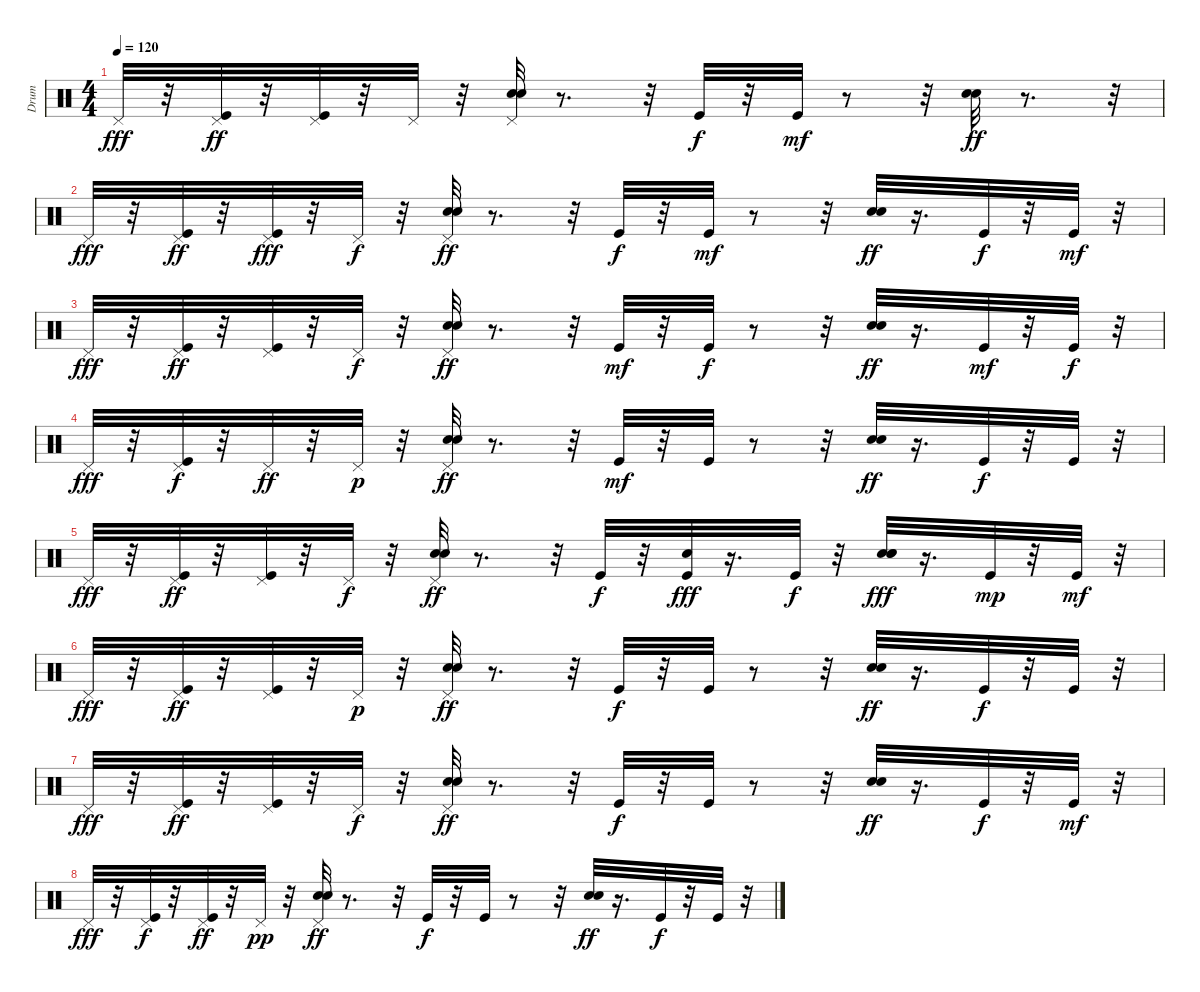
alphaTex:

\track ("Drum" "Drum") {instrument percussion}
\staff {score}
\articulation defaults
\ts (4 4)
\tempo 120
\clef neutral
\ks c "Pedal Hi-Hat (hit)".32{dy fff}
r.32 ("Kick (hit)" "Pedal Hi-Hat (hit)").32{dy ff} r.32 ("Kick (hit)" "Pedal Hi-Hat (hit)").32 r.32 "Pedal Hi-Hat (hit)".32 r.32 ("Electric Snare (hit)" "Snare (hit) 2" "Pedal Hi-Hat (hit)").32 r.8{d} r.32 "Kick (hit)".32{dy f} r.32 "Kick (hit)".32{dy mf} r.8 r.32 ("Electric Snare (hit)" "Snare (hit) 2").32{dy ff} r.8{d} r.32 |
"Pedal Hi-Hat (hit)".32{dy fff} r.32 ("Kick (hit)" "Pedal Hi-Hat (hit)").32{dy ff} r.32 ("Kick (hit)" "Pedal Hi-Hat (hit)").32{dy fff} r.32 "Pedal Hi-Hat (hit)".32{dy f} r.32 ("Electric Snare (hit)" "Snare (hit) 2" "Pedal Hi-Hat (hit)").32{dy ff} r.8{d} r.32 "Kick (hit)".32{dy f} r.32 "Kick (hit)".32{dy mf} r.8 r.32 ("Snare (hit) 2" "Electric Snare (hit)").32{dy ff} r.16{d} "Kick (hit)".32{dy f} r.32 "Kick (hit)".32{dy mf} r.32 |
"Pedal Hi-Hat (hit)".32{dy fff} r.32 ("Kick (hit)" "Pedal Hi-Hat (hit)").32{dy ff} r.32 ("Kick (hit)" "Pedal Hi-Hat (hit)").32 r.32 "Pedal Hi-Hat (hit)".32{dy f} r.32 ("Snare (hit) 2" "Electric Snare (hit)" "Pedal Hi-Hat (hit)").32{dy ff} r.8{d} r.32 "Kick (hit)".32{dy mf} r.32 "Kick (hit)".32{dy f} r.8 r.32 ("Snare (hit) 2" "Electric Snare (hit)").32{dy ff} r.16{d} "Kick (hit)".32{dy mf} r.32 "Kick (hit)".32{dy f} r.32 |
"Pedal Hi-Hat (hit)".32{dy fff} r.32 ("Pedal Hi-Hat (hit)" "Kick (hit)").32{dy f} r.32 "Pedal Hi-Hat (hit)".32{dy ff} r.32 "Pedal Hi-Hat (hit)".32{dy p} r.32 ("Pedal Hi-Hat (hit)" "Snare (hit) 2" "Electric Snare (hit)").32{dy ff} r.8{d} r.32 "Kick (hit)".32{dy mf} r.32 "Kick (hit)".32 r.8 r.32 ("Snare (hit) 2" "Electric Snare (hit)").32{dy ff} r.16{d} "Kick (hit)".32{dy f} r.32 "Kick (hit)".32 r.32 |
"Pedal Hi-Hat (hit)".32{dy fff} r.32 ("Pedal Hi-Hat (hit)" "Kick (hit)").32{dy ff} r.32 ("Kick (hit)" "Pedal Hi-Hat (hit)").32 r.32 "Pedal Hi-Hat (hit)".32{dy f} r.32 ("Pedal Hi-Hat (hit)" "Snare (hit) 2" "Electric Snare (hit)").32{dy ff} r.8{d} r.32 "Kick (hit)".32{dy f} r.32 ("Kick (hit)" "Hand Clap (hit)").32{dy fff} r.16{d} "Kick (hit)".32{dy f} r.32 ("Snare (hit) 2" "Electric Snare (hit)" "Hand Clap (hit)").32{dy fff} r.16{d} "Kick (hit)".32{dy mp} r.32 "Kick (hit)".32{dy mf} r.32 |
"Pedal Hi-Hat (hit)".32{dy fff} r.32 ("Pedal Hi-Hat (hit)" "Kick (hit)").32{dy ff} r.32 ("Kick (hit)" "Pedal Hi-Hat (hit)").32 r.32 "Pedal Hi-Hat (hit)".32{dy p} r.32 ("Snare (hit) 2" "Electric Snare (hit)" "Pedal Hi-Hat (hit)").32{dy ff} r.8{d} r.32 "Kick (hit)".32{dy f} r.32 "Kick (hit)".32 r.8 r.32 ("Snare (hit) 2" "Electric Snare (hit)").32{dy ff} r.16{d} "Kick (hit)".32{dy f} r.32 "Kick (hit)".32 r.32 |
"Pedal Hi-Hat (hit)".32{dy fff} r.32 ("Kick (hit)" "Pedal Hi-Hat (hit)").32{dy ff} r.32 ("Kick (hit)" "Pedal Hi-Hat (hit)").32 r.32 "Pedal Hi-Hat (hit)".32{dy f} r.32 ("Snare (hit) 2" "Electric Snare (hit)" "Pedal Hi-Hat (hit)").32{dy ff} r.8{d} r.32 "Kick (hit)".32{dy f} r.32 "Kick (hit)".32 r.8 r.32 ("Snare (hit) 2" "Electric Snare (hit)").32{dy ff} r.16{d} "Kick (hit)".32{dy f} r.32 "Kick (hit)".32{dy mf} r.32 |
"Pedal Hi-Hat (hit)".32{dy fff} r.32 ("Pedal Hi-Hat (hit)" "Kick (hit)").32{dy f} r.32 ("Kick (hit)" "Pedal Hi-Hat (hit)").32{dy ff} r.32 "Pedal Hi-Hat (hit)".32{dy pp} r.32 ("Snare (hit) 2" "Electric Snare (hit)" "Pedal Hi-Hat (hit)").32{dy ff} r.8{d} r.32 "Kick (hit)".32{dy f} r.32 "Kick (hit)".32 r.8 r.32 ("Electric Snare (hit)" "Snare (hit) 2").32{dy ff} r.16{d} "Kick (hit)".32{dy f} r.32 "Kick (hit)".32 r.32
